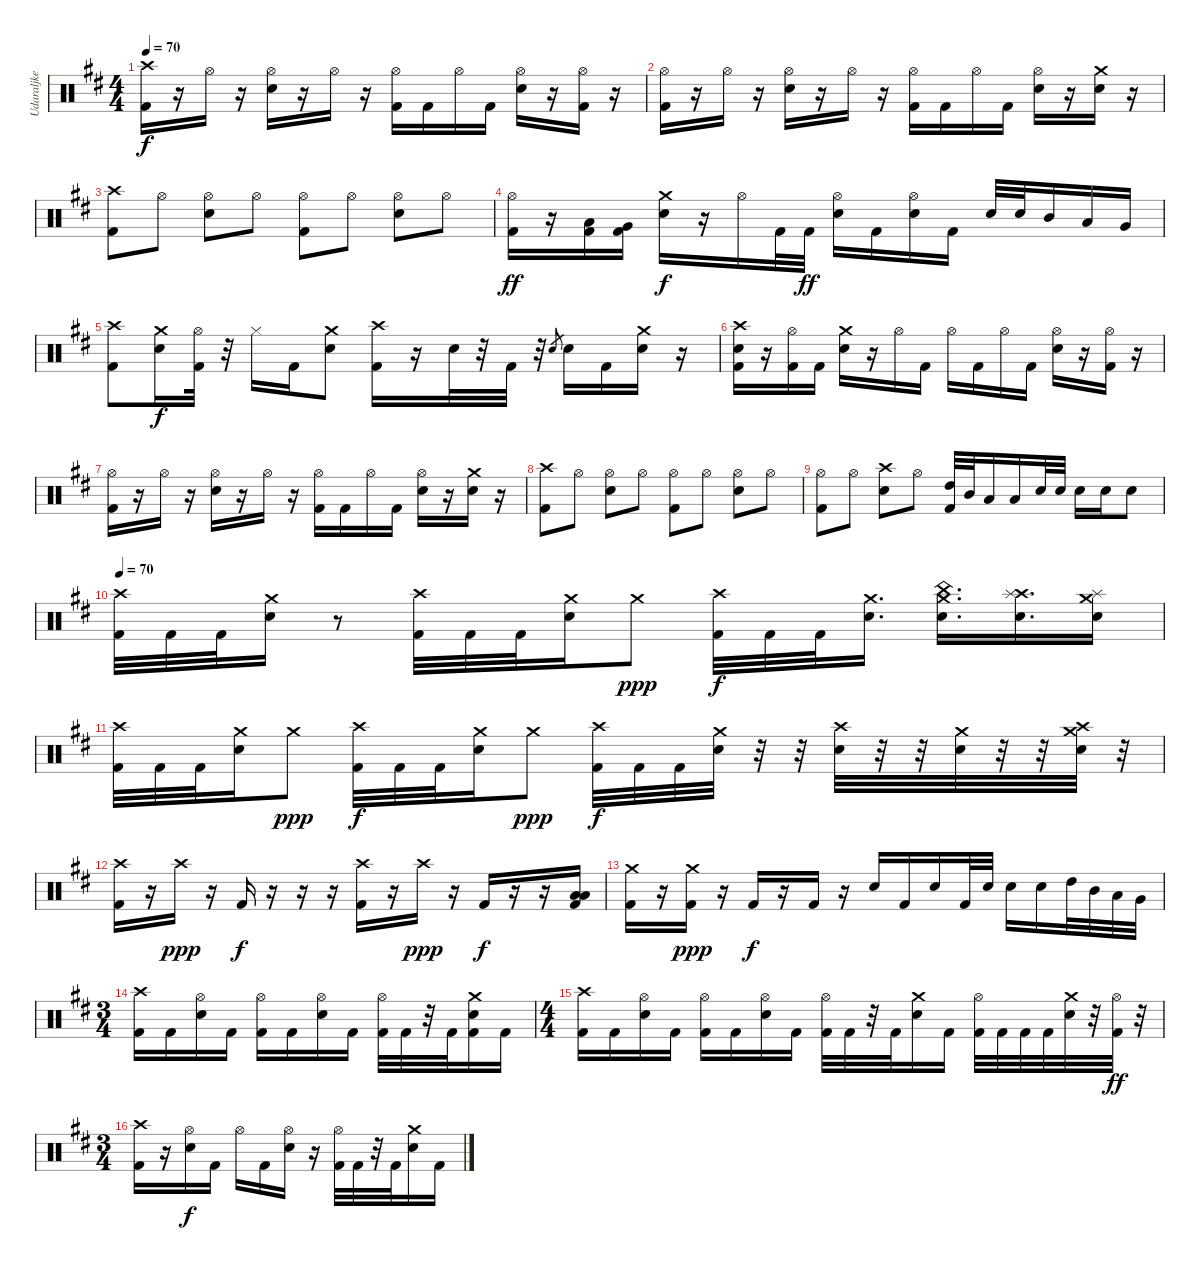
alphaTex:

\track ("Udaraljke" "Udaraljke") {instrument percussion}
\staff {score}
\articulation defaults
\ts (4 4)
\tempo 70
\clef neutral
\ks bminor
("Crash high (hit)" "Kick (hit) 2").16{dy f} r.16 "Hi-Hat (open)".16 r.16 ("Hi-Hat (open)" "Snare (hit) 2").16 r.16 "Hi-Hat (open)".16 r.16 ("Hi-Hat (open)" "Kick (hit) 2").16 "Kick (hit) 2".16 "Hi-Hat (open)".16 "Kick (hit) 2".16 ("Hi-Hat (open)" "Snare (hit) 2").16 r.16 ("Hi-Hat (open)" "Kick (hit) 2").16 r.16 |
("Hi-Hat (open)" "Kick (hit) 2").16 r.16 "Hi-Hat (open)".16 r.16 ("Hi-Hat (open)" "Snare (hit) 2").16 r.16 "Hi-Hat (open)".16 r.16 ("Hi-Hat (open)" "Kick (hit) 2").16 "Kick (hit) 2".16 "Hi-Hat (open)".16 "Kick (hit) 2".16 ("Hi-Hat (open)" "Snare (hit) 2").16 r.16 ("Crash medium (hit)" "Snare (hit) 2").16 r.16 |
("Crash high (hit)" "Kick (hit) 2").8 "Hi-Hat (open)".8 ("Hi-Hat (open)" "Snare (hit) 2").8 "Hi-Hat (open)".8 ("Hi-Hat (open)" "Kick (hit) 2").8 "Hi-Hat (open)".8 ("Hi-Hat (open)" "Snare (hit) 2").8 "Hi-Hat (open)".8 |
("Hi-Hat (open)" "Kick (hit) 2").16{dy ff} r.16 ("Low Tom (hit)" "Kick (hit) 2").16 ("Very Low Tom (hit)" "Kick (hit) 2").16 ("Crash medium (hit)" "Snare (hit) 2").16{dy f} r.16 "Hi-Hat (open)".16 "Kick (hit) 2".32 "Kick (hit) 2".32{dy ff} ("Hi-Hat (open)" "Snare (hit) 2").16 "Kick (hit) 2".16 ("Hi-Hat (open)" "Snare (hit) 2").16 "Kick (hit) 2".16 "Snare (hit) 2".32 "Snare (hit) 2".32 "Mid Tom (hit)".16 "Low Tom (hit)".16 "Very Low Tom (hit)".16 |
("Crash high (hit)" "Kick (hit) 2").8 ("Crash medium (hit)" "Snare (hit) 2").16{dy f} ("Hi-Hat (open)" "Kick (hit) 2").32 r.32 "Hi-Hat (closed)".16 "Kick (hit) 2".16 ("Crash medium (hit)" "Snare (hit) 2").8 ("Crash high (hit)" "Kick (hit) 2").16 r.16 "Snare (hit) 2".32 r.32 "Kick (hit) 2".32 r.32 "Snare (hit) 2".8{gr} "Snare (hit) 2".16 "Kick (hit) 2".16 ("Crash medium (hit)" "Snare (hit) 2").16 r.16 |
("Crash high (hit)" "Snare (hit) 2" "Kick (hit) 2").16 r.16 ("Hi-Hat (open)" "Kick (hit) 2").16 "Kick (hit) 2".16 ("Crash medium (hit)" "Snare (hit) 2").16 r.16 "Hi-Hat (open)".16 "Kick (hit) 2".16 "Hi-Hat (open)".16 "Kick (hit) 2".16 "Hi-Hat (open)".16 "Kick (hit) 2".16 ("Hi-Hat (open)" "Snare (hit) 2").16 r.16 ("Hi-Hat (open)" "Kick (hit) 2").16 r.16 |
("Hi-Hat (open)" "Kick (hit) 2").16 r.16 "Hi-Hat (open)".16 r.16 ("Hi-Hat (open)" "Snare (hit) 2").16 r.16 "Hi-Hat (open)".16 r.16 ("Hi-Hat (open)" "Kick (hit) 2").16 "Kick (hit) 2".16 "Hi-Hat (open)".16 "Kick (hit) 2".16 ("Hi-Hat (open)" "Snare (hit) 2").16 r.16 ("Crash medium (hit)" "Snare (hit) 2").16 r.16 |
("Crash high (hit)" "Kick (hit) 2").8 "Hi-Hat (open)".8 ("Hi-Hat (open)" "Snare (hit) 2").8 "Hi-Hat (open)".8 ("Hi-Hat (open)" "Kick (hit) 2").8 "Hi-Hat (open)".8 ("Hi-Hat (open)" "Snare (hit) 2").8 "Hi-Hat (open)".8 |
("Hi-Hat (open)" "Kick (hit) 2").8 "Hi-Hat (open)".8 ("Crash high (hit)" "Snare (hit) 2").8 "Hi-Hat (open)".8 ("High Tom (hit)" "Kick (hit) 2").32 "Mid Tom (hit)".32 "Low Tom (hit)".16 "Low Tom (hit)".16 "Snare (hit) 2".32 "Snare (hit) 2".32 "Snare (hit) 2".16 "Snare (hit) 2".16 "Snare (hit) 2".8 |
\tempo 70
("Crash high (hit)" "Kick (hit) 2").32 "Kick (hit) 2".32 "Kick (hit) 2".32 ("Crash medium (hit)" "Snare (hit) 2").16 r.8 ("Crash high (hit)" "Kick (hit) 2").32 "Kick (hit) 2".32 "Kick (hit) 2".32 ("Crash medium (hit)" "Snare (hit) 2").16 "Crash medium (hit)".8{dy ppp} ("Crash high (hit)" "Kick (hit) 2").32{dy f} "Kick (hit) 2".32 "Kick (hit) 2".32 ("Crash medium (hit)" "Snare (hit) 2").16{d} ("Crash medium (hit)" "China (hit)" "Snare (hit) 2").16{d} ("Crash high (hit)" "Splash (hit)" "Snare (hit) 2").16{d} ("Crash medium (hit)" "Splash (hit)" "Snare (hit) 2").16 |
("Crash high (hit)" "Kick (hit) 2").32 "Kick (hit) 2".32 "Kick (hit) 2".32 ("Crash medium (hit)" "Snare (hit) 2").16 "Crash medium (hit)".8{dy ppp} ("Crash high (hit)" "Kick (hit) 2").32{dy f} "Kick (hit) 2".32 "Kick (hit) 2".32 ("Crash medium (hit)" "Snare (hit) 2").16 "Crash medium (hit)".8{dy ppp} ("Crash high (hit)" "Kick (hit) 2").32{dy f} "Kick (hit) 2".32 "Kick (hit) 2".32 ("Crash medium (hit)" "Snare (hit) 2").32 r.32 r.32 ("Crash high (hit)" "Snare (hit) 2").32 r.32 r.32 ("Crash medium (hit)" "Snare (hit) 2").32 r.32 r.32 ("Crash medium (hit)" "Crash high (hit)" "Snare (hit) 2").32 r.32 |
("Crash high (hit)" "Kick (hit) 2").16 r.16 "Crash high (hit)".16{dy ppp} r.16 "Kick (hit) 2".16{dy f} r.16 r.16 r.16 ("Crash high (hit)" "Kick (hit) 2").16 r.16 "Crash high (hit)".16{dy ppp} r.16 "Kick (hit) 2".16{dy f} r.16 r.16 ("Low Tom (hit)" "Low Floor Tom (hit)" "Kick (hit) 2").16 |
("Crash medium (hit)" "Kick (hit) 2").16 r.16 ("Crash medium (hit)" "Kick (hit) 2").16{dy ppp} r.16 "Kick (hit) 2".16{dy f} r.16 "Kick (hit) 2".16 r.16 "Snare (hit) 2".16 "Kick (hit) 2".16 "Snare (hit) 2".16 "Kick (hit) 2".32 "Snare (hit) 2".32 "Snare (hit) 2".16 "Snare (hit) 2".16 "High Tom (hit)".32 "Mid Tom (hit)".32 "Low Tom (hit)".32 "Very Low Tom (hit)".32 |
\ts (3 4)
("Crash high (hit)" "Kick (hit) 2").16 "Kick (hit) 2".16 ("Hi-Hat (open)" "Snare (hit) 2").16 "Kick (hit) 2".16 ("Hi-Hat (open)" "Kick (hit) 2").16 "Kick (hit) 2".16 ("Hi-Hat (open)" "Snare (hit) 2").16 "Kick (hit) 2".16 ("Hi-Hat (open)" "Kick (hit) 2").32 "Kick (hit) 2".32 r.32 "Kick (hit) 2".32 ("Crash medium (hit)" "Snare (hit) 2" "Kick (hit) 2").16 "Kick (hit) 2".16 |
\ts (4 4)
("Crash high (hit)" "Kick (hit) 2").16 "Kick (hit) 2".16 ("Hi-Hat (open)" "Snare (hit) 2").16 "Kick (hit) 2".16 ("Hi-Hat (open)" "Kick (hit) 2").16 "Kick (hit) 2".16 ("Hi-Hat (open)" "Snare (hit) 2").16 "Kick (hit) 2".16 ("Hi-Hat (open)" "Kick (hit) 2").32 "Kick (hit) 2".32 r.32 "Kick (hit) 2".32 ("Crash medium (hit)" "Snare (hit) 2").16 "Kick (hit) 2".16 ("Hi-Hat (open)" "Kick (hit) 2").32 "Kick (hit) 2".32 "Kick (hit) 2".32 "Kick (hit) 2".32 ("Crash medium (hit)" "Snare (hit) 2").32 r.32 ("Hi-Hat (open)" "Kick (hit) 2").32{dy ff} r.32 |
\ts (3 4)
("Crash high (hit)" "Kick (hit) 2").16 r.16 ("Hi-Hat (open)" "Snare (hit) 2").16{dy f} "Kick (hit) 2".16 "Hi-Hat (open)".16 "Kick (hit) 2".16 ("Hi-Hat (open)" "Snare (hit) 2").16 r.16 ("Hi-Hat (open)" "Kick (hit) 2").32 "Kick (hit) 2".32 r.32 "Kick (hit) 2".32 ("Crash medium (hit)" "Snare (hit) 2").16 "Kick (hit) 2".16
